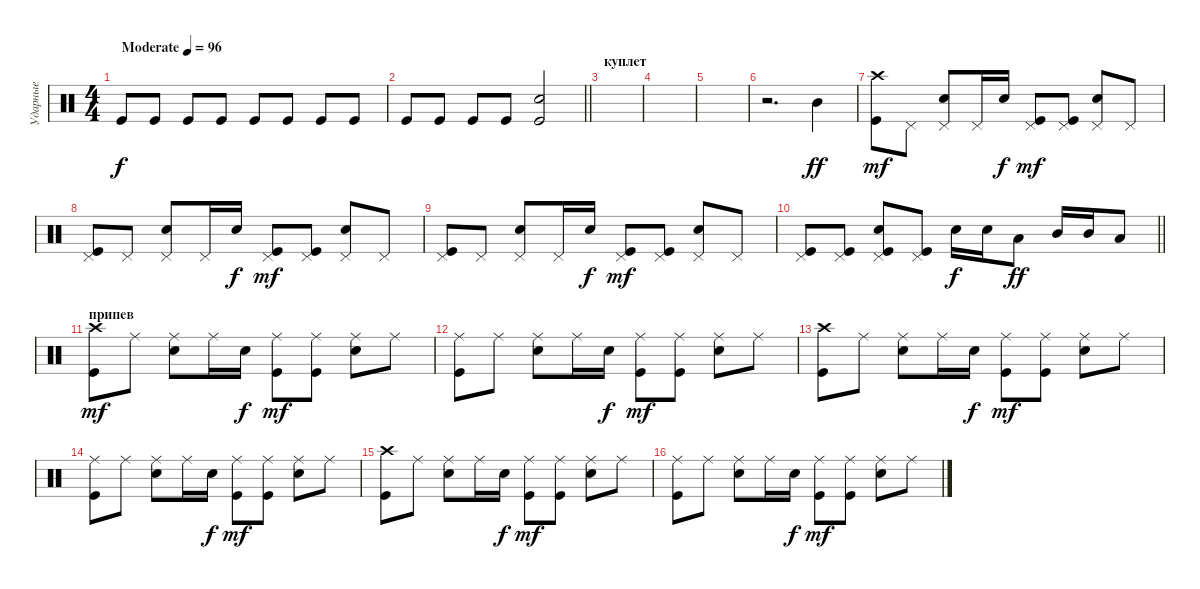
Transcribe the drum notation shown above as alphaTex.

\track ("Ударные" "Ударные") {instrument percussion}
\staff {score}
\articulation defaults
\ts (4 4)
\tempo (96 "Moderate")
\clef neutral
\ks c "Kick (hit)".8{dy f} "Kick (hit)".8 "Kick (hit)".8 "Kick (hit)".8 "Kick (hit)".8 "Kick (hit)".8 "Kick (hit)".8 "Kick (hit)".8
|
\barLineRight lightlight "Kick (hit)".8 "Kick (hit)".8 "Kick (hit)".8 "Kick (hit)".8
("Kick (hit)" "Electric Snare (hit)").2 |
\section ("" "куплет")
|
|
|
r.2{d} "Mid Tom (hit)".4{dy ff} |
("Kick (hit)" "Crash high (hit)").8{dy mf} "Pedal Hi-Hat (hit)".8 ("Electric Snare (hit)" "Pedal Hi-Hat (hit)").8 "Pedal Hi-Hat (hit)".16 "Electric Snare (hit)".16{dy f} ("Kick (hit)" "Pedal Hi-Hat (hit)").8{dy mf} ("Kick (hit)" "Pedal Hi-Hat (hit)").8 ("Electric Snare (hit)" "Pedal Hi-Hat (hit)").8 "Pedal Hi-Hat (hit)".8 |
("Kick (hit)" "Pedal Hi-Hat (hit)").8 "Pedal Hi-Hat (hit)".8 ("Electric Snare (hit)" "Pedal Hi-Hat (hit)").8 "Pedal Hi-Hat (hit)".16 "Electric Snare (hit)".16{dy f} ("Kick (hit)" "Pedal Hi-Hat (hit)").8{dy mf} ("Kick (hit)" "Pedal Hi-Hat (hit)").8 ("Electric Snare (hit)" "Pedal Hi-Hat (hit)").8 "Pedal Hi-Hat (hit)".8 |
("Kick (hit)" "Pedal Hi-Hat (hit)").8 "Pedal Hi-Hat (hit)".8 ("Electric Snare (hit)" "Pedal Hi-Hat (hit)").8 "Pedal Hi-Hat (hit)".16 "Electric Snare (hit)".16{dy f} ("Kick (hit)" "Pedal Hi-Hat (hit)").8{dy mf} ("Kick (hit)" "Pedal Hi-Hat (hit)").8 ("Electric Snare (hit)" "Pedal Hi-Hat (hit)").8 "Pedal Hi-Hat (hit)".8 |
\barLineRight lightlight
("Kick (hit)" "Pedal Hi-Hat (hit)").8 ("Kick (hit)" "Pedal Hi-Hat (hit)").8 ("Kick (hit)" "Electric Snare (hit)" "Pedal Hi-Hat (hit)").8 ("Kick (hit)" "Pedal Hi-Hat (hit)").8 "Electric Snare (hit)".16{dy f} "Electric Snare (hit)".16 "Low Floor Tom (hit)".8{dy ff} "Mid Tom (hit)".16 "Mid Tom (hit)".16 "Low Floor Tom (hit)".8 |
\section ("" "припев")
("Kick (hit)" "Crash high (hit)").8{dy mf} "Ride (middle)".8 ("Electric Snare (hit)" "Ride (middle)").8 "Ride (middle)".16 "Electric Snare (hit)".16{dy f} ("Kick (hit)" "Ride (middle)").8{dy mf} ("Kick (hit)" "Ride (middle)").8 ("Electric Snare (hit)" "Ride (middle)").8 "Ride (middle)".8 |
("Kick (hit)" "Ride (middle)").8 "Ride (middle)".8 ("Electric Snare (hit)" "Ride (middle)").8 "Ride (middle)".16 "Electric Snare (hit)".16{dy f} ("Kick (hit)" "Ride (middle)").8{dy mf} ("Kick (hit)" "Ride (middle)").8 ("Electric Snare (hit)" "Ride (middle)").8 "Ride (middle)".8 |
("Kick (hit)" "Crash high (hit)").8 "Ride (middle)".8 ("Electric Snare (hit)" "Ride (middle)").8 "Ride (middle)".16 "Electric Snare (hit)".16{dy f} ("Kick (hit)" "Ride (middle)").8{dy mf} ("Kick (hit)" "Ride (middle)").8 ("Electric Snare (hit)" "Ride (middle)").8 "Ride (middle)".8 |
("Kick (hit)" "Ride (middle)").8 "Ride (middle)".8 ("Electric Snare (hit)" "Ride (middle)").8 "Ride (middle)".16 "Electric Snare (hit)".16{dy f} ("Kick (hit)" "Ride (middle)").8{dy mf} ("Kick (hit)" "Ride (middle)").8 ("Electric Snare (hit)" "Ride (middle)").8 "Ride (middle)".8 |
("Kick (hit)" "Crash high (hit)").8 "Ride (middle)".8 ("Electric Snare (hit)" "Ride (middle)").8 "Ride (middle)".16 "Electric Snare (hit)".16{dy f} ("Kick (hit)" "Ride (middle)").8{dy mf} ("Kick (hit)" "Ride (middle)").8 ("Electric Snare (hit)" "Ride (middle)").8 "Ride (middle)".8 |
("Kick (hit)" "Ride (middle)").8 "Ride (middle)".8 ("Electric Snare (hit)" "Ride (middle)").8 "Ride (middle)".16 "Electric Snare (hit)".16{dy f} ("Kick (hit)" "Ride (middle)").8{dy mf} ("Kick (hit)" "Ride (middle)").8 ("Electric Snare (hit)" "Ride (middle)").8 "Ride (middle)".8
